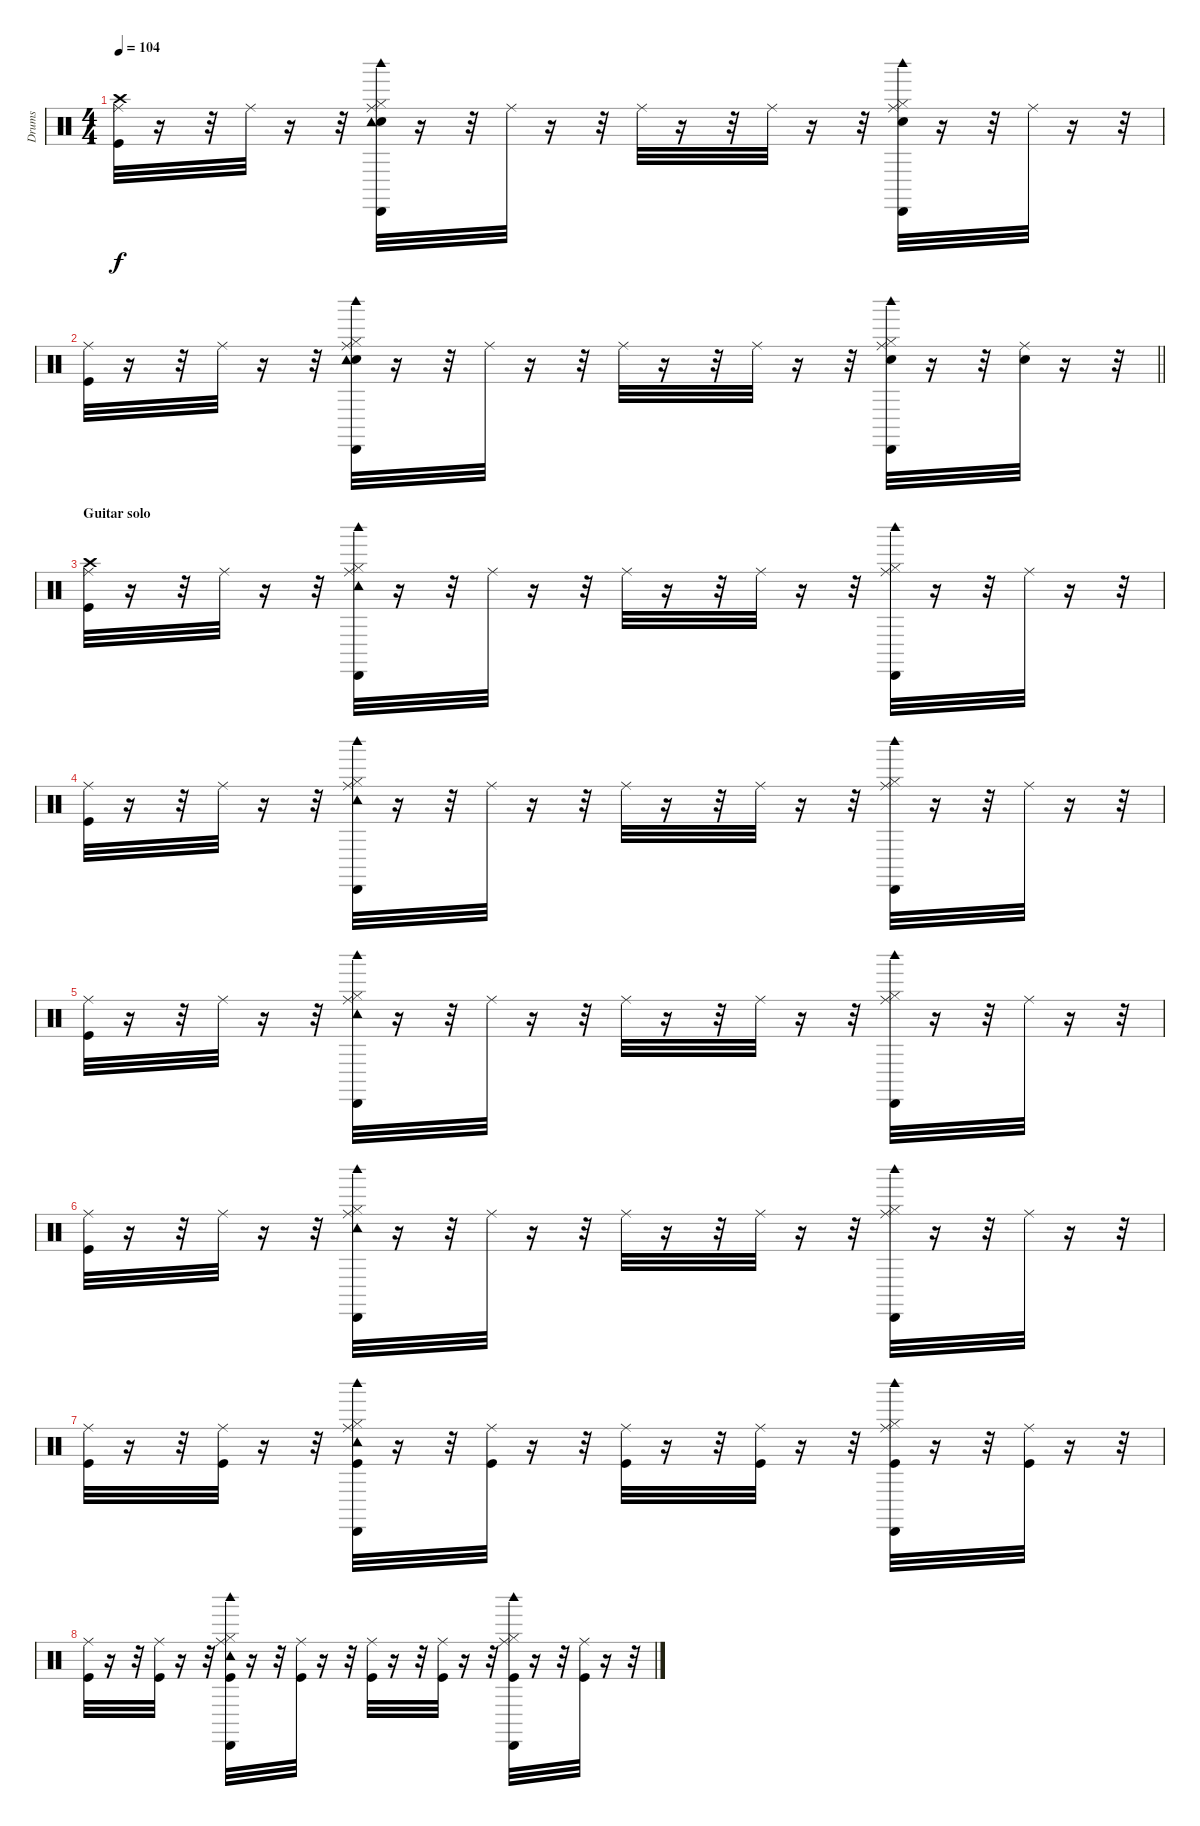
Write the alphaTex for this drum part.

\track ("Drums" "Drums") {instrument percussion}
\staff {score}
\articulation defaults
\ts (4 4)
\tempo 104
\clef neutral
\ks c
("Kick (hit)" "Crash high (hit)" "Ride (middle)").32{dy f} r.16 r.32 "Ride (middle)".32 r.16 r.32 ("Snare (hit) 2" "Hi-Hat (closed)" "Ride (middle)" "Tambourine (hit)" "Cabasa (hit)" "Woodblock high (hit)").32 r.16 r.32 "Ride (middle)".32 r.16 r.32 "Ride (middle)".32 r.16 r.32 "Ride (middle)".32 r.16 r.32 ("Snare (hit) 2" "Hi-Hat (closed)" "Ride (middle)" "Cabasa (hit)" "Woodblock high (hit)").32 r.16 r.32 "Ride (middle)".32 r.16 r.32 |
\barLineRight lightlight
("Kick (hit)" "Ride (middle)").32 r.16 r.32 "Ride (middle)".32 r.16 r.32 ("Snare (hit) 2" "Hi-Hat (closed)" "Ride (middle)" "Tambourine (hit)" "Cabasa (hit)" "Woodblock high (hit)").32 r.16 r.32 "Ride (middle)".32 r.16 r.32 "Ride (middle)".32 r.16 r.32 "Ride (middle)".32 r.16 r.32 ("Snare (hit) 2" "Hi-Hat (closed)" "Ride (middle)" "Cabasa (hit)" "Woodblock high (hit)").32 r.16 r.32 ("Snare (hit) 2" "Ride (middle)").32 r.16 r.32 |
\section ("" "Guitar solo")
("Kick (hit)" "Crash high (hit)" "Ride (middle)").32 r.16 r.32 "Ride (middle)".32 r.16 r.32 ("Hi-Hat (closed)" "Ride (middle)" "Tambourine (hit)" "Cabasa (hit)" "Woodblock high (hit)").32 r.16 r.32 "Ride (middle)".32 r.16 r.32 "Ride (middle)".32 r.16 r.32 "Ride (middle)".32 r.16 r.32 ("Hi-Hat (closed)" "Ride (middle)" "Cabasa (hit)" "Woodblock high (hit)").32 r.16 r.32 "Ride (middle)".32 r.16 r.32 |
("Kick (hit)" "Ride (middle)").32 r.16 r.32 "Ride (middle)".32 r.16 r.32 ("Hi-Hat (closed)" "Ride (middle)" "Tambourine (hit)" "Cabasa (hit)" "Woodblock high (hit)").32 r.16 r.32 "Ride (middle)".32 r.16 r.32 "Ride (middle)".32 r.16 r.32 "Ride (middle)".32 r.16 r.32 ("Hi-Hat (closed)" "Ride (middle)" "Cabasa (hit)" "Woodblock high (hit)").32 r.16 r.32 "Ride (middle)".32 r.16 r.32 |
("Kick (hit)" "Ride (middle)").32 r.16 r.32 "Ride (middle)".32 r.16 r.32 ("Hi-Hat (closed)" "Ride (middle)" "Tambourine (hit)" "Cabasa (hit)" "Woodblock high (hit)").32 r.16 r.32 "Ride (middle)".32 r.16 r.32 "Ride (middle)".32 r.16 r.32 "Ride (middle)".32 r.16 r.32 ("Hi-Hat (closed)" "Ride (middle)" "Cabasa (hit)" "Woodblock high (hit)").32 r.16 r.32 "Ride (middle)".32 r.16 r.32 |
("Kick (hit)" "Ride (middle)").32 r.16 r.32 "Ride (middle)".32 r.16 r.32 ("Hi-Hat (closed)" "Ride (middle)" "Tambourine (hit)" "Cabasa (hit)" "Woodblock high (hit)").32 r.16 r.32 "Ride (middle)".32 r.16 r.32 "Ride (middle)".32 r.16 r.32 "Ride (middle)".32 r.16 r.32 ("Hi-Hat (closed)" "Ride (middle)" "Cabasa (hit)" "Woodblock high (hit)").32 r.16 r.32 "Ride (middle)".32 r.16 r.32 |
("Kick (hit)" "Ride (middle)").32 r.16 r.32 ("Kick (hit)" "Ride (middle)").32 r.16 r.32 ("Kick (hit)" "Hi-Hat (closed)" "Ride (middle)" "Tambourine (hit)" "Cabasa (hit)" "Woodblock high (hit)").32 r.16 r.32 ("Kick (hit)" "Ride (middle)").32 r.16 r.32 ("Kick (hit)" "Ride (middle)").32 r.16 r.32 ("Kick (hit)" "Ride (middle)").32 r.16 r.32 ("Kick (hit)" "Hi-Hat (closed)" "Ride (middle)" "Cabasa (hit)" "Woodblock high (hit)").32 r.16 r.32 ("Kick (hit)" "Ride (middle)").32 r.16 r.32 |
("Kick (hit)" "Ride (middle)").32 r.16 r.32 ("Kick (hit)" "Ride (middle)").32 r.16 r.32 ("Kick (hit)" "Hi-Hat (closed)" "Ride (middle)" "Tambourine (hit)" "Cabasa (hit)" "Woodblock high (hit)").32 r.16 r.32 ("Kick (hit)" "Ride (middle)").32 r.16 r.32 ("Kick (hit)" "Ride (middle)").32 r.16 r.32 ("Kick (hit)" "Ride (middle)").32 r.16 r.32 ("Kick (hit)" "Hi-Hat (closed)" "Ride (middle)" "Cabasa (hit)" "Woodblock high (hit)").32 r.16 r.32 ("Kick (hit)" "Ride (middle)").32 r.16 r.32
